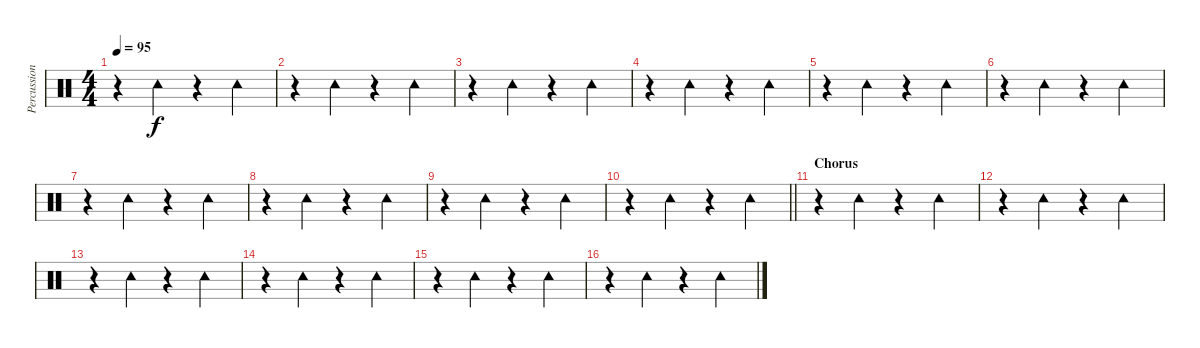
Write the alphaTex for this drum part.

\track ("Percussioni" "Percussion") {instrument percussion}
\staff {score}
\articulation defaults
\ts (4 4)
\tempo 95
\clef neutral
\ks c
r.4{dy f} "Tambourine (hit)".4 r.4 "Tambourine (hit)".4 |
r.4 "Tambourine (hit)".4 r.4 "Tambourine (hit)".4 |
r.4 "Tambourine (hit)".4 r.4 "Tambourine (hit)".4 |
r.4 "Tambourine (hit)".4 r.4 "Tambourine (hit)".4 |
r.4 "Tambourine (hit)".4 r.4 "Tambourine (hit)".4 |
r.4 "Tambourine (hit)".4 r.4 "Tambourine (hit)".4 |
r.4 "Tambourine (hit)".4 r.4 "Tambourine (hit)".4 |
r.4 "Tambourine (hit)".4 r.4 "Tambourine (hit)".4 |
r.4 "Tambourine (hit)".4 r.4 "Tambourine (hit)".4 |
\barLineRight lightlight
r.4 "Tambourine (hit)".4 r.4 "Tambourine (hit)".4 |
\section ("" "Chorus")
r.4 "Tambourine (hit)".4 r.4 "Tambourine (hit)".4 |
r.4 "Tambourine (hit)".4 r.4 "Tambourine (hit)".4 |
r.4 "Tambourine (hit)".4 r.4 "Tambourine (hit)".4 |
r.4 "Tambourine (hit)".4 r.4 "Tambourine (hit)".4 |
r.4 "Tambourine (hit)".4 r.4 "Tambourine (hit)".4 |
r.4 "Tambourine (hit)".4 r.4 "Tambourine (hit)".4
